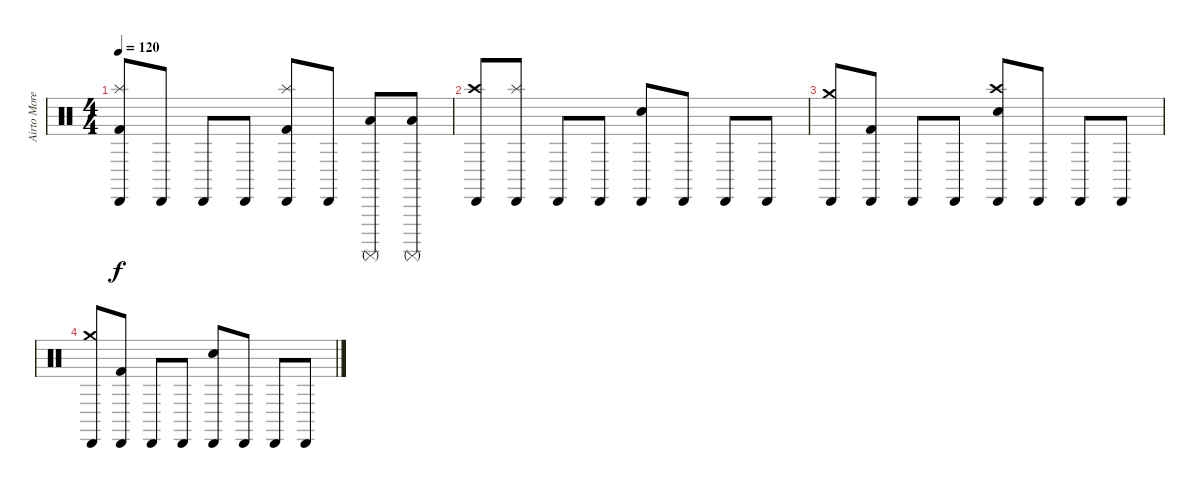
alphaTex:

\track ("Airto Moreira" "Airto More") {instrument percussion}
\staff {score}
\articulation defaults
\ts (4 4)
\tempo 120
\clef neutral
\ks c
("Cabasa (hit)" "Kick (hit) 2" "Splash (hit)").8{dy f volume 8} "Cabasa (hit)".8 "Cabasa (hit)".8 "Cabasa (hit)".8 ("Cabasa (hit)" "Kick (hit) 2" "Splash (hit)").8 "Cabasa (hit)".8 ("Low Tom (hit)" "Surdo (mute)").8 ("Low Tom (hit)" "Surdo (mute)").8 |
("Cabasa (hit)" "Crash high (hit)").8{volume 6} ("Cabasa (hit)" "Splash (hit)").8 "Cabasa (hit)".8 "Cabasa (hit)".8 ("Cabasa (hit)" "Electric Snare (hit)").8 "Cabasa (hit)".8 "Cabasa (hit)".8 "Cabasa (hit)".8 |
("Cabasa (hit)" "Crash medium (hit)").8{volume 4} ("Cabasa (hit)" "Kick (hit) 2").8 "Cabasa (hit)".8 "Cabasa (hit)".8 ("Cabasa (hit)" "Electric Snare (hit)" "Crash high (hit)").8 "Cabasa (hit)".8 "Cabasa (hit)".8 "Cabasa (hit)".8 |
("Cabasa (hit)" "Crash medium (hit)").8{volume 2} ("Cabasa (hit)" "Kick (hit) 2").8 "Cabasa (hit)".8 "Cabasa (hit)".8 ("Cabasa (hit)" "Electric Snare (hit)").8 "Cabasa (hit)".8 "Cabasa (hit)".8 "Cabasa (hit)".8
